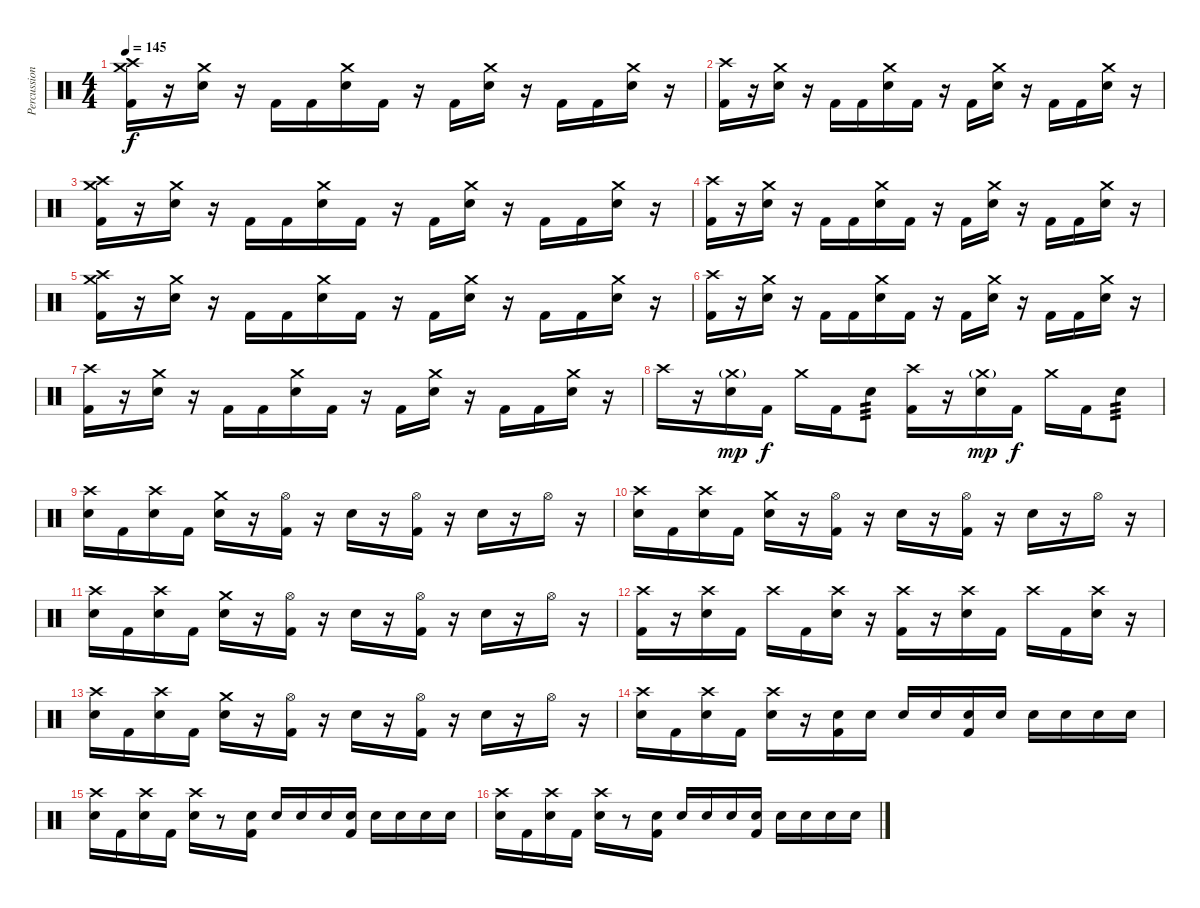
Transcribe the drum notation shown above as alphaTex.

\track ("Percussion" "Percussion") {instrument percussion}
\staff {score}
\articulation defaults
\ts (4 4)
\tempo 145
\clef neutral
\ks c
("Crash high (hit)" "Crash medium (hit)" "Kick (hit) 2").16{dy f} r.16 ("Crash medium (hit)" "Electric Snare (hit)").16 r.16 "Kick (hit) 2".16 "Kick (hit) 2".16 ("Crash medium (hit)" "Electric Snare (hit)").16 "Kick (hit) 2".16 r.16 "Kick (hit) 2".16 ("Crash medium (hit)" "Electric Snare (hit)").16 r.16 "Kick (hit) 2".16 "Kick (hit) 2".16 ("Crash medium (hit)" "Electric Snare (hit)").16 r.16 |
("Crash high (hit)" "Kick (hit) 2").16 r.16 ("Crash medium (hit)" "Electric Snare (hit)").16 r.16 "Kick (hit) 2".16 "Kick (hit) 2".16 ("Crash medium (hit)" "Electric Snare (hit)").16 "Kick (hit) 2".16 r.16 "Kick (hit) 2".16 ("Crash medium (hit)" "Electric Snare (hit)").16 r.16 "Kick (hit) 2".16 "Kick (hit) 2".16 ("Crash medium (hit)" "Electric Snare (hit)").16 r.16 |
("Crash high (hit)" "Crash medium (hit)" "Kick (hit) 2").16 r.16 ("Crash medium (hit)" "Electric Snare (hit)").16 r.16 "Kick (hit) 2".16 "Kick (hit) 2".16 ("Crash medium (hit)" "Electric Snare (hit)").16 "Kick (hit) 2".16 r.16 "Kick (hit) 2".16 ("Crash medium (hit)" "Electric Snare (hit)").16 r.16 "Kick (hit) 2".16 "Kick (hit) 2".16 ("Crash medium (hit)" "Electric Snare (hit)").16 r.16 |
("Crash high (hit)" "Kick (hit) 2").16 r.16 ("Crash medium (hit)" "Electric Snare (hit)").16 r.16 "Kick (hit) 2".16 "Kick (hit) 2".16 ("Crash medium (hit)" "Electric Snare (hit)").16 "Kick (hit) 2".16 r.16 "Kick (hit) 2".16 ("Crash medium (hit)" "Electric Snare (hit)").16 r.16 "Kick (hit) 2".16 "Kick (hit) 2".16 ("Crash medium (hit)" "Electric Snare (hit)").16 r.16 |
("Crash high (hit)" "Crash medium (hit)" "Kick (hit) 2").16 r.16 ("Crash medium (hit)" "Electric Snare (hit)").16 r.16 "Kick (hit) 2".16 "Kick (hit) 2".16 ("Crash medium (hit)" "Electric Snare (hit)").16 "Kick (hit) 2".16 r.16 "Kick (hit) 2".16 ("Crash medium (hit)" "Electric Snare (hit)").16 r.16 "Kick (hit) 2".16 "Kick (hit) 2".16 ("Crash medium (hit)" "Electric Snare (hit)").16 r.16 |
("Crash high (hit)" "Kick (hit) 2").16 r.16 ("Crash medium (hit)" "Electric Snare (hit)").16 r.16 "Kick (hit) 2".16 "Kick (hit) 2".16 ("Crash medium (hit)" "Electric Snare (hit)").16 "Kick (hit) 2".16 r.16 "Kick (hit) 2".16 ("Crash medium (hit)" "Electric Snare (hit)").16 r.16 "Kick (hit) 2".16 "Kick (hit) 2".16 ("Crash medium (hit)" "Electric Snare (hit)").16 r.16 |
("Crash high (hit)" "Kick (hit) 2").16 r.16 ("Crash medium (hit)" "Electric Snare (hit)").16 r.16 "Kick (hit) 2".16 "Kick (hit) 2".16 ("Crash medium (hit)" "Electric Snare (hit)").16 "Kick (hit) 2".16 r.16 "Kick (hit) 2".16 ("Crash medium (hit)" "Electric Snare (hit)").16 r.16 "Kick (hit) 2".16 "Kick (hit) 2".16 ("Crash medium (hit)" "Electric Snare (hit)").16 r.16 |
"Crash high (hit)".16 r.16 ("Crash medium (hit)"{g} "Electric Snare (hit)").16{dy mp} "Kick (hit) 2".16{dy f} "Crash medium (hit)".16 "Kick (hit) 2".16 "Electric Snare (hit)".8{tp 3} ("Crash high (hit)" "Kick (hit) 2").16 r.16 ("Crash medium (hit)"{g} "Electric Snare (hit)").16{dy mp} "Kick (hit) 2".16{dy f} "Crash medium (hit)".16 "Kick (hit) 2".16 "Electric Snare (hit)".8{tp 3} |
("Crash high (hit)" "Electric Snare (hit)").16 "Kick (hit) 2".16 ("Crash high (hit)" "Electric Snare (hit)").16 "Kick (hit) 2".16 ("Crash medium (hit)" "Electric Snare (hit)").16 r.16 ("Hi-Hat (open)" "Kick (hit) 2").16 r.16 "Electric Snare (hit)".16 r.16 ("Hi-Hat (open)" "Kick (hit) 2").16 r.16 "Electric Snare (hit)".16 r.16 "Hi-Hat (open)".16 r.16 |
("Crash high (hit)" "Electric Snare (hit)").16 "Kick (hit) 2".16 ("Crash high (hit)" "Electric Snare (hit)").16 "Kick (hit) 2".16 ("Crash medium (hit)" "Electric Snare (hit)").16 r.16 ("Hi-Hat (open)" "Kick (hit) 2").16 r.16 "Electric Snare (hit)".16 r.16 ("Hi-Hat (open)" "Kick (hit) 2").16 r.16 "Electric Snare (hit)".16 r.16 "Hi-Hat (open)".16 r.16 |
("Crash high (hit)" "Electric Snare (hit)").16 "Kick (hit) 2".16 ("Crash high (hit)" "Electric Snare (hit)").16 "Kick (hit) 2".16 ("Crash medium (hit)" "Electric Snare (hit)").16 r.16 ("Hi-Hat (open)" "Kick (hit) 2").16 r.16 "Electric Snare (hit)".16 r.16 ("Hi-Hat (open)" "Kick (hit) 2").16 r.16 "Electric Snare (hit)".16 r.16 "Hi-Hat (open)".16 r.16 |
("Crash high (hit)" "Kick (hit) 2").16 r.16 ("Crash high (hit)" "Electric Snare (hit)").16 "Kick (hit) 2".16 "Crash high (hit)".16 "Kick (hit) 2".16 ("Crash high (hit)" "Electric Snare (hit)").16 r.16 ("Crash high (hit)" "Kick (hit) 2").16 r.16 ("Crash high (hit)" "Electric Snare (hit)").16 "Kick (hit) 2".16 "Crash high (hit)".16 "Kick (hit) 2".16 ("Crash high (hit)" "Electric Snare (hit)").16 r.16 |
("Crash high (hit)" "Electric Snare (hit)").16 "Kick (hit) 2".16 ("Crash high (hit)" "Electric Snare (hit)").16 "Kick (hit) 2".16 ("Crash medium (hit)" "Electric Snare (hit)").16 r.16 ("Hi-Hat (open)" "Kick (hit) 2").16 r.16 "Electric Snare (hit)".16 r.16 ("Hi-Hat (open)" "Kick (hit) 2").16 r.16 "Electric Snare (hit)".16 r.16 "Hi-Hat (open)".16 r.16 |
("Crash high (hit)" "Electric Snare (hit)").16 "Kick (hit) 2".16 ("Crash high (hit)" "Electric Snare (hit)").16 "Kick (hit) 2".16 ("Crash high (hit)" "Electric Snare (hit)").16 r.16 ("Electric Snare (hit)" "Kick (hit) 2").16 "Electric Snare (hit)".16 "Electric Snare (hit)".16 "Electric Snare (hit)".16 ("Electric Snare (hit)" "Kick (hit) 2").16 "Electric Snare (hit)".16 "Electric Snare (hit)".16 "Electric Snare (hit)".16 "Electric Snare (hit)".16 "Electric Snare (hit)".16 |
("Crash high (hit)" "Electric Snare (hit)").16 "Kick (hit) 2".16 ("Crash high (hit)" "Electric Snare (hit)").16 "Kick (hit) 2".16 ("Crash high (hit)" "Electric Snare (hit)").16 r.8 ("Electric Snare (hit)" "Kick (hit) 2").16 "Electric Snare (hit)".16 "Electric Snare (hit)".16 "Electric Snare (hit)".16 ("Electric Snare (hit)" "Kick (hit) 2").16 "Electric Snare (hit)".16 "Electric Snare (hit)".16 "Electric Snare (hit)".16 "Electric Snare (hit)".16 |
("Crash high (hit)" "Electric Snare (hit)").16 "Kick (hit) 2".16 ("Crash high (hit)" "Electric Snare (hit)").16 "Kick (hit) 2".16 ("Crash high (hit)" "Electric Snare (hit)").16 r.8 ("Electric Snare (hit)" "Kick (hit) 2").16 "Electric Snare (hit)".16 "Electric Snare (hit)".16 "Electric Snare (hit)".16 ("Electric Snare (hit)" "Kick (hit) 2").16 "Electric Snare (hit)".16 "Electric Snare (hit)".16 "Electric Snare (hit)".16 "Electric Snare (hit)".16
